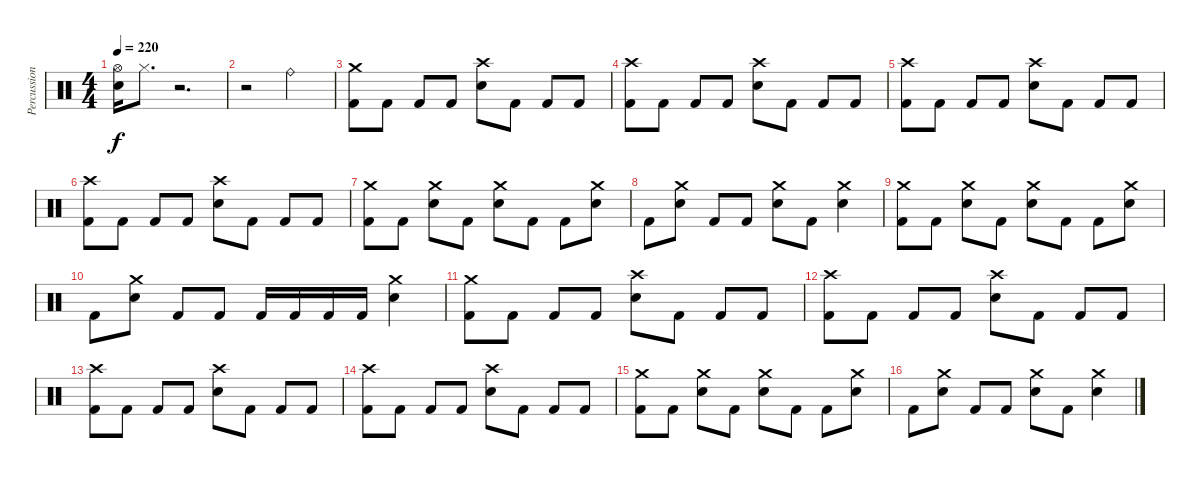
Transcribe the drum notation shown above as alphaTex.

\track ("Percussions" "Percussion") {instrument percussion}
\staff {score}
\articulation defaults
\ts (4 4)
\tempo 220
\clef neutral
\ks c
("Hi-Hat (open)" "Electric Snare (hit)").16{dy f} "Hi-Hat (closed)".8{d} r.2{d} |
r.2 "Ride (bell)".2 |
("Crash medium (hit)" "Kick (hit) 2").8 "Kick (hit) 2".8 "Kick (hit) 2".8 "Kick (hit) 2".8 ("Crash high (hit)" "Electric Snare (hit)").8 "Kick (hit) 2".8 "Kick (hit) 2".8 "Kick (hit) 2".8 |
("Crash high (hit)" "Kick (hit) 2").8 "Kick (hit) 2".8 "Kick (hit) 2".8 "Kick (hit) 2".8 ("Crash high (hit)" "Electric Snare (hit)").8 "Kick (hit) 2".8 "Kick (hit) 2".8 "Kick (hit) 2".8 |
("Crash high (hit)" "Kick (hit) 2").8 "Kick (hit) 2".8 "Kick (hit) 2".8 "Kick (hit) 2".8 ("Crash high (hit)" "Electric Snare (hit)").8 "Kick (hit) 2".8 "Kick (hit) 2".8 "Kick (hit) 2".8 |
("Crash high (hit)" "Kick (hit) 2").8 "Kick (hit) 2".8 "Kick (hit) 2".8 "Kick (hit) 2".8 ("Crash high (hit)" "Electric Snare (hit)").8 "Kick (hit) 2".8 "Kick (hit) 2".8 "Kick (hit) 2".8 |
("Crash medium (hit)" "Kick (hit) 2").8 "Kick (hit) 2".8 ("Crash medium (hit)" "Electric Snare (hit)").8 "Kick (hit) 2".8 ("Crash medium (hit)" "Electric Snare (hit)").8 "Kick (hit) 2".8 "Kick (hit) 2".8 ("Crash medium (hit)" "Electric Snare (hit)").8 |
"Kick (hit) 2".8 ("Crash medium (hit)" "Electric Snare (hit)").8 "Kick (hit) 2".8 "Kick (hit) 2".8 ("Crash medium (hit)" "Electric Snare (hit)").8 "Kick (hit) 2".8 ("Crash medium (hit)" "Electric Snare (hit)").4 |
("Crash medium (hit)" "Kick (hit) 2").8 "Kick (hit) 2".8 ("Crash medium (hit)" "Electric Snare (hit)").8 "Kick (hit) 2".8 ("Crash medium (hit)" "Electric Snare (hit)").8 "Kick (hit) 2".8 "Kick (hit) 2".8 ("Crash medium (hit)" "Electric Snare (hit)").8 |
"Kick (hit) 2".8 ("Crash medium (hit)" "Electric Snare (hit)").8 "Kick (hit) 2".8 "Kick (hit) 2".8 "Kick (hit) 2".16 "Kick (hit) 2".16 "Kick (hit) 2".16 "Kick (hit) 2".16 ("Crash medium (hit)" "Electric Snare (hit)").4 |
("Crash medium (hit)" "Kick (hit) 2").8 "Kick (hit) 2".8 "Kick (hit) 2".8 "Kick (hit) 2".8 ("Crash high (hit)" "Electric Snare (hit)").8 "Kick (hit) 2".8 "Kick (hit) 2".8 "Kick (hit) 2".8 |
("Crash high (hit)" "Kick (hit) 2").8 "Kick (hit) 2".8 "Kick (hit) 2".8 "Kick (hit) 2".8 ("Crash high (hit)" "Electric Snare (hit)").8 "Kick (hit) 2".8 "Kick (hit) 2".8 "Kick (hit) 2".8 |
("Crash high (hit)" "Kick (hit) 2").8 "Kick (hit) 2".8 "Kick (hit) 2".8 "Kick (hit) 2".8 ("Crash high (hit)" "Electric Snare (hit)").8 "Kick (hit) 2".8 "Kick (hit) 2".8 "Kick (hit) 2".8 |
("Crash high (hit)" "Kick (hit) 2").8 "Kick (hit) 2".8 "Kick (hit) 2".8 "Kick (hit) 2".8 ("Crash high (hit)" "Electric Snare (hit)").8 "Kick (hit) 2".8 "Kick (hit) 2".8 "Kick (hit) 2".8 |
("Crash medium (hit)" "Kick (hit) 2").8 "Kick (hit) 2".8 ("Crash medium (hit)" "Electric Snare (hit)").8 "Kick (hit) 2".8 ("Crash medium (hit)" "Electric Snare (hit)").8 "Kick (hit) 2".8 "Kick (hit) 2".8 ("Crash medium (hit)" "Electric Snare (hit)").8 |
"Kick (hit) 2".8 ("Crash medium (hit)" "Electric Snare (hit)").8 "Kick (hit) 2".8 "Kick (hit) 2".8 ("Crash medium (hit)" "Electric Snare (hit)").8 "Kick (hit) 2".8 ("Crash medium (hit)" "Electric Snare (hit)").4
